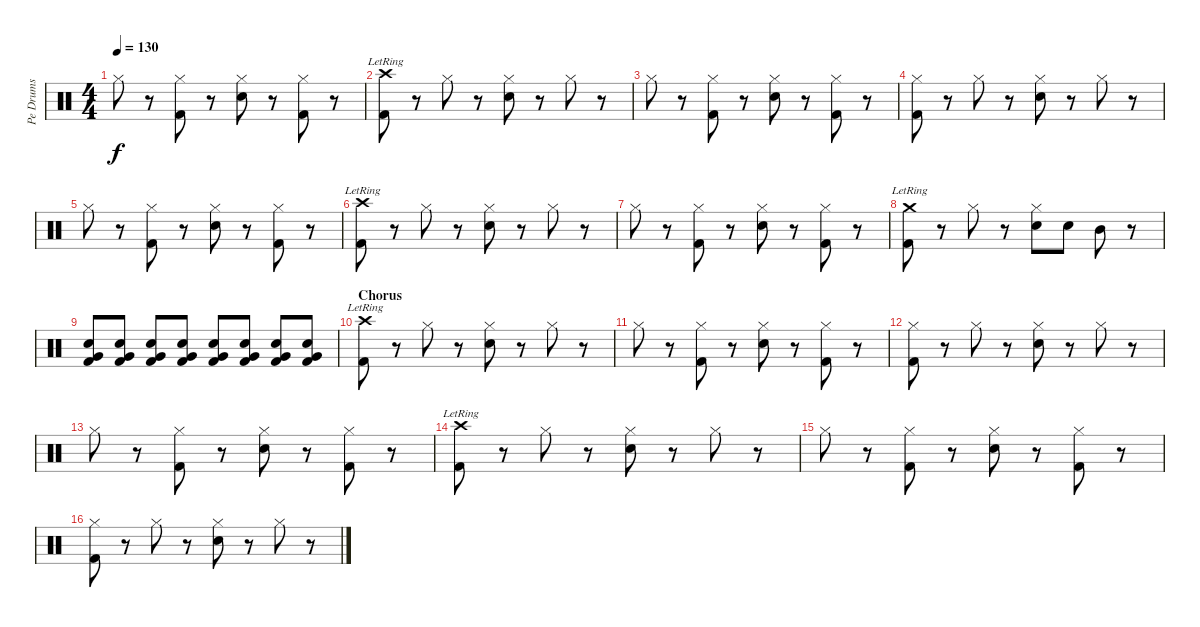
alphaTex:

\track ("Pe Drums" "Pe Drums") {instrument percussion}
\staff {score}
\articulation defaults
\ts (4 4)
\tempo 130
\clef neutral
\ks c "Hi-Hat (closed)".8{dy f}
r.8 ("Hi-Hat (closed)" "Kick (hit) 2").8 r.8 ("Hi-Hat (closed)" "Electric Snare (hit)").8 r.8 ("Hi-Hat (closed)" "Kick (hit) 2").8 r.8 |
("Crash high (hit)"{lr} "Kick (hit) 2").8 r.8 "Hi-Hat (closed)".8 r.8 ("Hi-Hat (closed)" "Electric Snare (hit)").8 r.8 "Hi-Hat (closed)".8 r.8 |
"Hi-Hat (closed)".8 r.8 ("Hi-Hat (closed)" "Kick (hit) 2").8 r.8 ("Hi-Hat (closed)" "Electric Snare (hit)").8 r.8 ("Hi-Hat (closed)" "Kick (hit) 2").8 r.8 |
("Hi-Hat (closed)" "Kick (hit) 2").8 r.8 "Hi-Hat (closed)".8 r.8 ("Hi-Hat (closed)" "Electric Snare (hit)").8 r.8 "Hi-Hat (closed)".8 r.8 |
"Hi-Hat (closed)".8 r.8 ("Hi-Hat (closed)" "Kick (hit) 2").8 r.8 ("Hi-Hat (closed)" "Electric Snare (hit)").8 r.8 ("Hi-Hat (closed)" "Kick (hit) 2").8 r.8 |
("Crash high (hit)"{lr} "Kick (hit) 2").8 r.8 "Hi-Hat (closed)".8 r.8 ("Hi-Hat (closed)" "Electric Snare (hit)").8 r.8 "Hi-Hat (closed)".8 r.8 |
"Hi-Hat (closed)".8 r.8 ("Hi-Hat (closed)" "Kick (hit) 2").8 r.8 ("Hi-Hat (closed)" "Electric Snare (hit)").8 r.8 ("Hi-Hat (closed)" "Kick (hit) 2").8 r.8 |
("Crash medium (hit)"{lr} "Kick (hit) 2").8 r.8 "Hi-Hat (closed)".8 r.8 ("Hi-Hat (closed)" "Electric Snare (hit)").8 "Electric Snare (hit)".8 "Mid Tom (hit)".8 r.8 |
("Electric Snare (hit)" "Very Low Tom (hit)" "Kick (hit) 2").8 ("Electric Snare (hit)" "Very Low Tom (hit)" "Kick (hit) 2").8 ("Electric Snare (hit)" "Very Low Tom (hit)" "Kick (hit) 2").8 ("Electric Snare (hit)" "Very Low Tom (hit)" "Kick (hit) 2").8 ("Electric Snare (hit)" "Very Low Tom (hit)" "Kick (hit) 2").8 ("Electric Snare (hit)" "Very Low Tom (hit)" "Kick (hit) 2").8 ("Electric Snare (hit)" "Very Low Tom (hit)" "Kick (hit) 2").8 ("Electric Snare (hit)" "Very Low Tom (hit)" "Kick (hit) 2").8 |
\section ("" "Chorus")
("Crash high (hit)"{lr} "Kick (hit) 2").8 r.8 "Hi-Hat (closed)".8 r.8 ("Hi-Hat (closed)" "Electric Snare (hit)").8 r.8 "Hi-Hat (closed)".8 r.8 |
"Hi-Hat (closed)".8 r.8 ("Hi-Hat (closed)" "Kick (hit) 2").8 r.8 ("Hi-Hat (closed)" "Electric Snare (hit)").8 r.8 ("Hi-Hat (closed)" "Kick (hit) 2").8 r.8 |
("Hi-Hat (closed)" "Kick (hit) 2").8 r.8 "Hi-Hat (closed)".8 r.8 ("Hi-Hat (closed)" "Electric Snare (hit)").8 r.8 "Hi-Hat (closed)".8 r.8 |
"Hi-Hat (closed)".8 r.8 ("Hi-Hat (closed)" "Kick (hit) 2").8 r.8 ("Hi-Hat (closed)" "Electric Snare (hit)").8 r.8 ("Hi-Hat (closed)" "Kick (hit) 2").8 r.8 |
("Crash high (hit)"{lr} "Kick (hit) 2").8 r.8 "Hi-Hat (closed)".8 r.8 ("Hi-Hat (closed)" "Electric Snare (hit)").8 r.8 "Hi-Hat (closed)".8 r.8 |
"Hi-Hat (closed)".8 r.8 ("Hi-Hat (closed)" "Kick (hit) 2").8 r.8 ("Hi-Hat (closed)" "Electric Snare (hit)").8 r.8 ("Hi-Hat (closed)" "Kick (hit) 2").8 r.8 |
("Hi-Hat (closed)" "Kick (hit) 2").8 r.8 "Hi-Hat (closed)".8 r.8 ("Hi-Hat (closed)" "Electric Snare (hit)").8 r.8 "Hi-Hat (closed)".8 r.8
